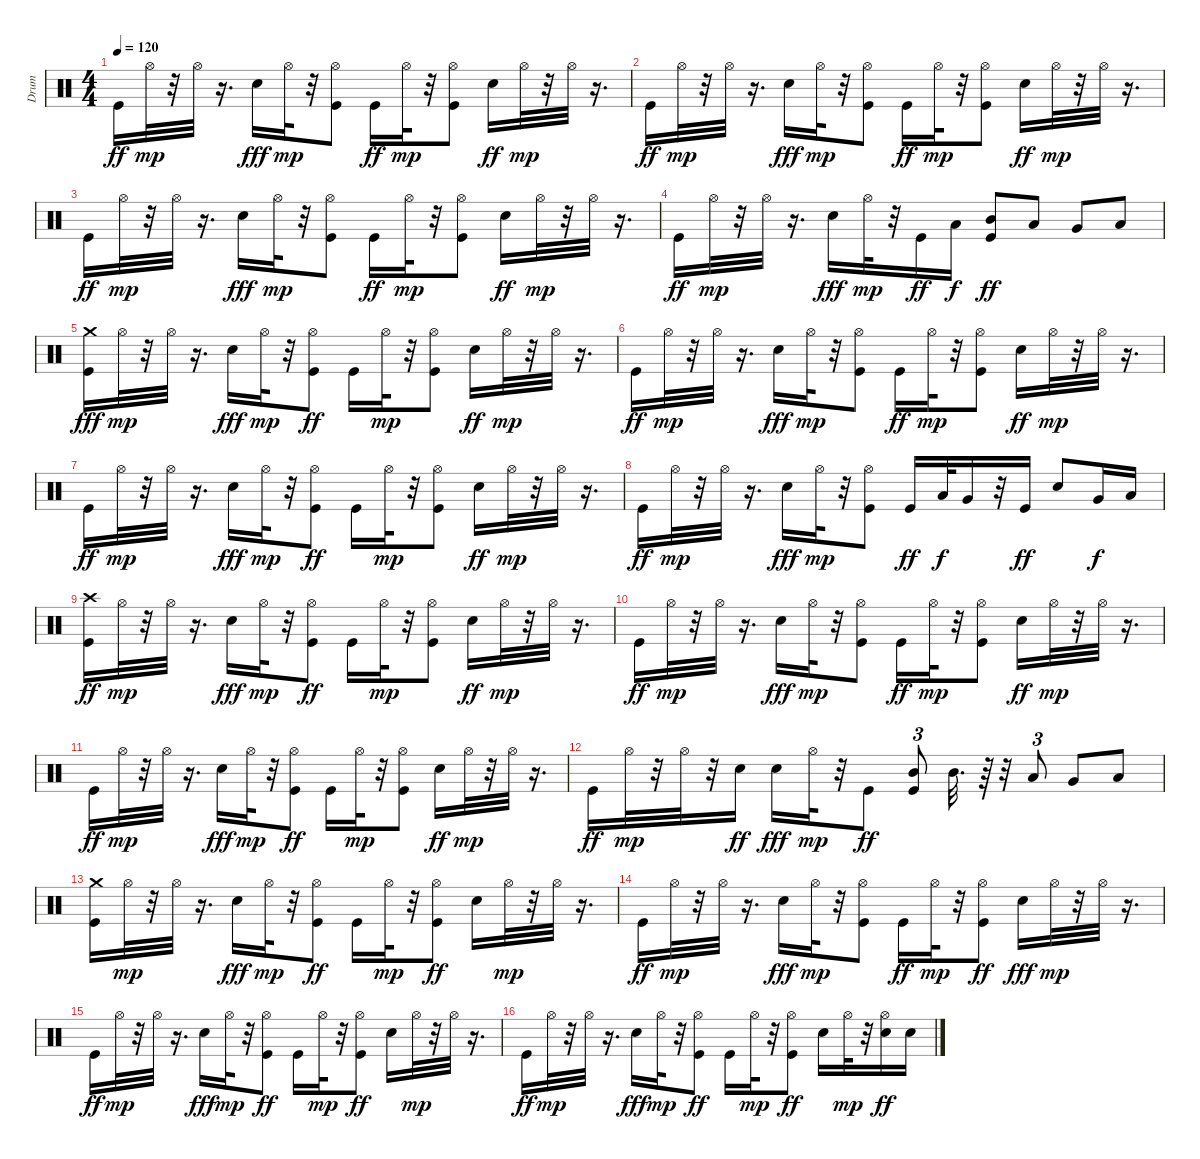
\track ("Drum" "Drum") {instrument percussion}
\staff {score}
\articulation defaults
\ts (4 4)
\tempo 120
\clef neutral
\ks c "Kick (hit)".16{dy ff} "Hi-Hat (open)".32{dy mp}
r.32 "Hi-Hat (open)".32 r.16{d} "Snare (hit) 2".16{dy fff} "Hi-Hat (open)".32{dy mp} r.32 ("Kick (hit)" "Hi-Hat (open)").8 "Kick (hit)".16{dy ff} "Hi-Hat (open)".32{dy mp} r.32 ("Kick (hit)" "Hi-Hat (open)").8 "Snare (hit) 2".16{dy ff} "Hi-Hat (open)".32{dy mp} r.32 "Hi-Hat (open)".32 r.16{d} |
"Kick (hit)".16{dy ff} "Hi-Hat (open)".32{dy mp} r.32 "Hi-Hat (open)".32 r.16{d} "Snare (hit) 2".16{dy fff} "Hi-Hat (open)".32{dy mp} r.32 ("Kick (hit)" "Hi-Hat (open)").8 "Kick (hit)".16{dy ff} "Hi-Hat (open)".32{dy mp} r.32 ("Kick (hit)" "Hi-Hat (open)").8 "Snare (hit) 2".16{dy ff} "Hi-Hat (open)".32{dy mp} r.32 "Hi-Hat (open)".32 r.16{d} |
"Kick (hit)".16{dy ff} "Hi-Hat (open)".32{dy mp} r.32 "Hi-Hat (open)".32 r.16{d} "Snare (hit) 2".16{dy fff} "Hi-Hat (open)".32{dy mp} r.32 ("Kick (hit)" "Hi-Hat (open)").8 "Kick (hit)".16{dy ff} "Hi-Hat (open)".32{dy mp} r.32 ("Kick (hit)" "Hi-Hat (open)").8 "Snare (hit) 2".16{dy ff} "Hi-Hat (open)".32{dy mp} r.32 "Hi-Hat (open)".32 r.16{d} |
"Kick (hit)".16{dy ff} "Hi-Hat (open)".32{dy mp} r.32 "Hi-Hat (open)".32 r.16{d} "Snare (hit) 2".16{dy fff} "Hi-Hat (open)".32{dy mp} r.32 "Kick (hit)".16{dy ff} "Low Tom (hit)".16{dy f} ("Mid Tom (hit)" "Kick (hit)").8{dy ff} "Low Tom (hit)".8 "Very Low Tom (hit)".8 "Low Floor Tom (hit)".8 |
("Kick (hit)" "Crash medium (hit)").16{dy fff} "Hi-Hat (open)".32{dy mp} r.32 "Hi-Hat (open)".32 r.16{d} "Snare (hit) 2".16{dy fff} "Hi-Hat (open)".32{dy mp} r.32 ("Hi-Hat (open)" "Kick (hit)").8{dy ff} "Kick (hit)".16 "Hi-Hat (open)".32{dy mp} r.32 ("Kick (hit)" "Hi-Hat (open)").8 "Snare (hit) 2".16{dy ff} "Hi-Hat (open)".32{dy mp} r.32 "Hi-Hat (open)".32 r.16{d} |
"Kick (hit)".16{dy ff} "Hi-Hat (open)".32{dy mp} r.32 "Hi-Hat (open)".32 r.16{d} "Snare (hit) 2".16{dy fff} "Hi-Hat (open)".32{dy mp} r.32 ("Kick (hit)" "Hi-Hat (open)").8 "Kick (hit)".16{dy ff} "Hi-Hat (open)".32{dy mp} r.32 ("Kick (hit)" "Hi-Hat (open)").8 "Snare (hit) 2".16{dy ff} "Hi-Hat (open)".32{dy mp} r.32 "Hi-Hat (open)".32 r.16{d} |
"Kick (hit)".16{dy ff} "Hi-Hat (open)".32{dy mp} r.32 "Hi-Hat (open)".32 r.16{d} "Snare (hit) 2".16{dy fff} "Hi-Hat (open)".32{dy mp} r.32 ("Hi-Hat (open)" "Kick (hit)").8{dy ff} "Kick (hit)".16 "Hi-Hat (open)".32{dy mp} r.32 ("Kick (hit)" "Hi-Hat (open)").8 "Snare (hit) 2".16{dy ff} "Hi-Hat (open)".32{dy mp} r.32 "Hi-Hat (open)".32 r.16{d} |
"Kick (hit)".16{dy ff} "Hi-Hat (open)".32{dy mp} r.32 "Hi-Hat (open)".32 r.16{d} "Snare (hit) 2".16{dy fff} "Hi-Hat (open)".32{dy mp} r.32 ("Kick (hit)" "Hi-Hat (open)").8 "Kick (hit)".16{dy ff} "Low Tom (hit)".32{dy f} "Very Low Tom (hit)".16 r.32 "Kick (hit)".16{dy ff} "Snare (hit) 2".8 "Very Low Tom (hit)".16{dy f} "Low Floor Tom (hit)".16 |
("Crash high (hit)" "Kick (hit)").16{dy ff} "Hi-Hat (open)".32{dy mp} r.32 "Hi-Hat (open)".32 r.16{d} "Snare (hit) 2".16{dy fff} "Hi-Hat (open)".32{dy mp} r.32 ("Hi-Hat (open)" "Kick (hit)").8{dy ff} "Kick (hit)".16 "Hi-Hat (open)".32{dy mp} r.32 ("Kick (hit)" "Hi-Hat (open)").8 "Snare (hit) 2".16{dy ff} "Hi-Hat (open)".32{dy mp} r.32 "Hi-Hat (open)".32 r.16{d} |
"Kick (hit)".16{dy ff} "Hi-Hat (open)".32{dy mp} r.32 "Hi-Hat (open)".32 r.16{d} "Snare (hit) 2".16{dy fff} "Hi-Hat (open)".32{dy mp} r.32 ("Kick (hit)" "Hi-Hat (open)").8 "Kick (hit)".16{dy ff} "Hi-Hat (open)".32{dy mp} r.32 ("Kick (hit)" "Hi-Hat (open)").8 "Snare (hit) 2".16{dy ff} "Hi-Hat (open)".32{dy mp} r.32 "Hi-Hat (open)".32 r.16{d} |
"Kick (hit)".16{dy ff} "Hi-Hat (open)".32{dy mp} r.32 "Hi-Hat (open)".32 r.16{d} "Snare (hit) 2".16{dy fff} "Hi-Hat (open)".32{dy mp} r.32 ("Hi-Hat (open)" "Kick (hit)").8{dy ff} "Kick (hit)".16 "Hi-Hat (open)".32{dy mp} r.32 ("Kick (hit)" "Hi-Hat (open)").8 "Snare (hit) 2".16{dy ff} "Hi-Hat (open)".32{dy mp} r.32 "Hi-Hat (open)".32 r.16{d} |
"Kick (hit)".16{dy ff} "Hi-Hat (open)".32{dy mp} r.32 "Hi-Hat (open)".32 r.32 "Snare (hit) 2".16{dy ff} "Snare (hit) 2".16{dy fff} "Hi-Hat (open)".32{dy mp} r.32 "Kick (hit)".8{dy ff} ("Kick (hit)" "Mid Tom (hit)").8{tu (3 2)} "Mid Tom (hit)".32{d} r.64 r.32 "Low Tom (hit)".8{tu (3 2)} "Very Low Tom (hit)".8 "Low Floor Tom (hit)".8 |
("Crash medium (hit)" "Kick (hit)").16 "Hi-Hat (open)".32{dy mp} r.32 "Hi-Hat (open)".32 r.16{d} "Snare (hit) 2".16{dy fff} "Hi-Hat (open)".32{dy mp} r.32 ("Hi-Hat (open)" "Kick (hit)").8{dy ff} "Kick (hit)".16 "Hi-Hat (open)".32{dy mp} r.32 ("Hi-Hat (open)" "Kick (hit)").8{dy ff} "Snare (hit) 2".16 "Hi-Hat (open)".32{dy mp} r.32 "Hi-Hat (open)".32 r.16{d} |
"Kick (hit)".16{dy ff} "Hi-Hat (open)".32{dy mp} r.32 "Hi-Hat (open)".32 r.16{d} "Snare (hit) 2".16{dy fff} "Hi-Hat (open)".32{dy mp} r.32 ("Kick (hit)" "Hi-Hat (open)").8 "Kick (hit)".16{dy ff} "Hi-Hat (open)".32{dy mp} r.32 ("Hi-Hat (open)" "Kick (hit)").8{dy ff} "Snare (hit) 2".16{dy fff} "Hi-Hat (open)".32{dy mp} r.32 "Hi-Hat (open)".32 r.16{d} |
"Kick (hit)".16{dy ff} "Hi-Hat (open)".32{dy mp} r.32 "Hi-Hat (open)".32 r.16{d} "Snare (hit) 2".16{dy fff} "Hi-Hat (open)".32{dy mp} r.32 ("Hi-Hat (open)" "Kick (hit)").8{dy ff} "Kick (hit)".16 "Hi-Hat (open)".32{dy mp} r.32 ("Hi-Hat (open)" "Kick (hit)").8{dy ff} "Snare (hit) 2".16 "Hi-Hat (open)".32{dy mp} r.32 "Hi-Hat (open)".32 r.16{d} |
"Kick (hit)".16{dy ff} "Hi-Hat (open)".32{dy mp} r.32 "Hi-Hat (open)".32 r.16{d} "Snare (hit) 2".16{dy fff} "Hi-Hat (open)".32{dy mp} r.32 ("Hi-Hat (open)" "Kick (hit)").8{dy ff} "Kick (hit)".16 "Hi-Hat (open)".32{dy mp} r.32 ("Hi-Hat (open)" "Kick (hit)").8{dy ff} "Snare (hit) 2".16 "Hi-Hat (open)".32{dy mp} r.32 ("Hi-Hat (open)" "Snare (hit) 2").16{dy ff} "Snare (hit) 2".16
